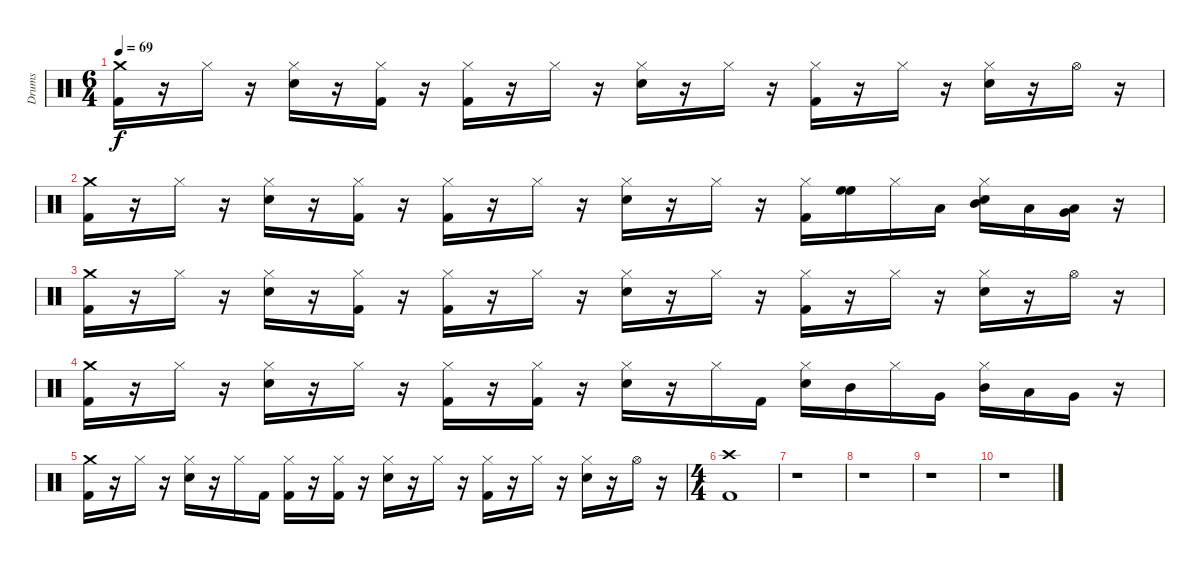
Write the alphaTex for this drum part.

\track ("Drums" "Drums") {instrument percussion}
\staff {score}
\articulation defaults
\ts (6 4)
\tempo 69
\clef neutral
\ks c
("Crash medium (hit)" "Kick (hit) 2").16{dy f} r.16 "Hi-Hat (closed)".16 r.16 ("Hi-Hat (closed)" "Snare (hit) 2").16 r.16 ("Hi-Hat (closed)" "Kick (hit) 2").16 r.16 ("Hi-Hat (closed)" "Kick (hit) 2").16 r.16 "Hi-Hat (closed)".16 r.16 ("Hi-Hat (closed)" "Snare (hit) 2").16 r.16 "Hi-Hat (closed)".16 r.16 ("Hi-Hat (closed)" "Kick (hit) 2").16 r.16 "Hi-Hat (closed)".16 r.16 ("Hi-Hat (closed)" "Snare (hit) 2").16 r.16 "Hi-Hat (open)".16 r.16 |
("Crash medium (hit)" "Kick (hit) 2").16 r.16 "Hi-Hat (closed)".16 r.16 ("Hi-Hat (closed)" "Snare (hit) 2").16 r.16 ("Hi-Hat (closed)" "Kick (hit) 2").16 r.16 ("Hi-Hat (closed)" "Kick (hit) 2").16 r.16 "Hi-Hat (closed)".16 r.16 ("Hi-Hat (closed)" "Snare (hit) 2").16 r.16 "Hi-Hat (closed)".16 r.16 ("Hi-Hat (closed)" "Kick (hit) 2").16 ("High Floor Tom (hit)" "High Floor Tom (hit)").16 "Hi-Hat (closed)".16 "Low Tom (hit)".16 ("Hi-Hat (closed)" "Mid Tom (hit)" "Snare (hit) 2").16 "Low Tom (hit)".16 ("Very Low Tom (hit)" "Low Floor Tom (hit)").16 r.16 |
("Crash medium (hit)" "Kick (hit) 2").16 r.16 "Hi-Hat (closed)".16 r.16 ("Hi-Hat (closed)" "Snare (hit) 2").16 r.16 ("Hi-Hat (closed)" "Kick (hit) 2").16 r.16 ("Hi-Hat (closed)" "Kick (hit) 2").16 r.16 "Hi-Hat (closed)".16 r.16 ("Hi-Hat (closed)" "Snare (hit) 2").16 r.16 "Hi-Hat (closed)".16 r.16 ("Hi-Hat (closed)" "Kick (hit) 2").16 r.16 "Hi-Hat (closed)".16 r.16 ("Hi-Hat (closed)" "Snare (hit) 2").16 r.16 "Hi-Hat (open)".16 r.16 |
("Crash medium (hit)" "Kick (hit) 2").16 r.16 "Hi-Hat (closed)".16 r.16 ("Hi-Hat (closed)" "Snare (hit) 2").16 r.16 "Hi-Hat (closed)".16 r.16 ("Hi-Hat (closed)" "Kick (hit) 2").16 r.16 ("Hi-Hat (closed)" "Kick (hit) 2").16 r.16 ("Hi-Hat (closed)" "Snare (hit) 2").16 r.16 "Hi-Hat (closed)".16 "Kick (hit) 2".16 ("Hi-Hat (closed)" "Snare (hit) 2").16 "Mid Tom (hit)".16 "Hi-Hat (closed)".16 "Very Low Tom (hit)".16 ("Hi-Hat (closed)" "Mid Tom (hit)").16 "Low Tom (hit)".16 "Very Low Tom (hit)".16 r.16 |
("Crash medium (hit)" "Kick (hit) 2").16 r.16 "Hi-Hat (closed)".16 r.16 ("Hi-Hat (closed)" "Snare (hit) 2").16 r.16 "Hi-Hat (closed)".16 "Kick (hit) 2".16 ("Hi-Hat (closed)" "Kick (hit) 2").16 r.16 ("Hi-Hat (closed)" "Kick (hit) 2").16 r.16 ("Hi-Hat (closed)" "Snare (hit) 2").16 r.16 "Hi-Hat (closed)".16 r.16 ("Hi-Hat (closed)" "Kick (hit) 2").16 r.16 "Hi-Hat (closed)".16 r.16 ("Hi-Hat (closed)" "Snare (hit) 2").16 r.16 "Hi-Hat (open)".16 r.16 |
\ts (4 4)
("Crash high (hit)" "Kick (hit) 2").1 |
r.1 |
r.1 |
r.1 |
r.1
